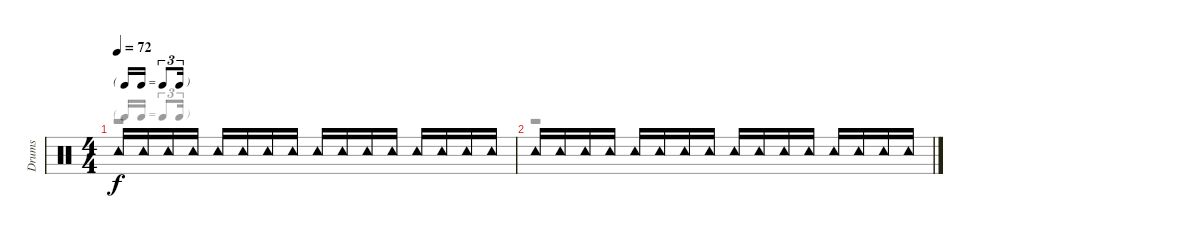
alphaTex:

\track ("Drums" "Drums") {instrument percussion}
\staff {score}
\articulation defaults
\voice
\ts (4 4)
\tf triplet16th
\tempo 72
\clef neutral
\ks c "Tambourine (hit)".16{dy f} "Tambourine (hit)".16 "Tambourine (hit)".16 "Tambourine (hit)".16 "Tambourine (hit)".16 "Tambourine (hit)".16 "Tambourine (hit)".16 "Tambourine (hit)".16 "Tambourine (hit)".16 "Tambourine (hit)".16 "Tambourine (hit)".16 "Tambourine (hit)".16 "Tambourine (hit)".16 "Tambourine (hit)".16 "Tambourine (hit)".16 "Tambourine (hit)".16
|
"Tambourine (hit)".16 "Tambourine (hit)".16 "Tambourine (hit)".16 "Tambourine (hit)".16 "Tambourine (hit)".16 "Tambourine (hit)".16 "Tambourine (hit)".16 "Tambourine (hit)".16 "Tambourine (hit)".16 "Tambourine (hit)".16 "Tambourine (hit)".16 "Tambourine (hit)".16 "Tambourine (hit)".16 "Tambourine (hit)".16 "Tambourine (hit)".16 "Tambourine (hit)".16
\voice
\clef neutral
\ottava regular
\simile none
\ks c
r.1{dy fff} |
r.1
